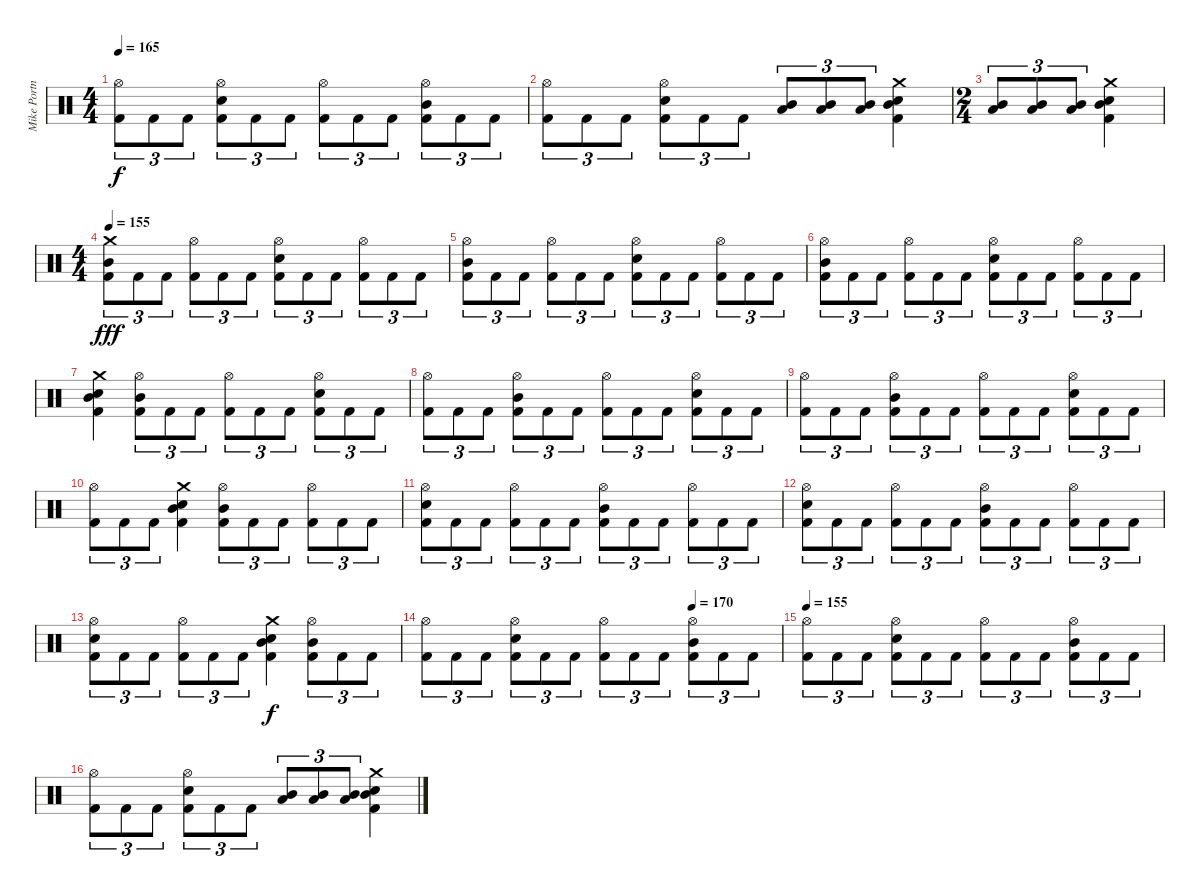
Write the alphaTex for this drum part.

\track ("Mike Portnoy" "Mike Portn") {instrument percussion}
\staff {score}
\articulation defaults
\ts (4 4)
\tempo 155
\tempo 165
\clef neutral
\ks c
("Hi-Hat (open)" "Kick (hit) 2").8{tu (3 2) dy f} "Kick (hit) 2".8{tu (3 2)} "Kick (hit) 2".8{tu (3 2)} ("Hi-Hat (open)" "Electric Snare (hit)" "Kick (hit) 2").8{tu (3 2)} "Kick (hit) 2".8{tu (3 2)} "Kick (hit) 2".8{tu (3 2)} ("Hi-Hat (open)" "Kick (hit) 2").8{tu (3 2)} "Kick (hit) 2".8{tu (3 2)} "Kick (hit) 2".8{tu (3 2)} ("Hi-Hat (open)" "Mid Tom (hit)" "Kick (hit) 2").8{tu (3 2)} "Kick (hit) 2".8{tu (3 2)} "Kick (hit) 2".8{tu (3 2)} |
("Hi-Hat (open)" "Kick (hit) 2").8{tu (3 2)} "Kick (hit) 2".8{tu (3 2)} "Kick (hit) 2".8{tu (3 2)} ("Hi-Hat (open)" "Electric Snare (hit)" "Kick (hit) 2").8{tu (3 2)} "Kick (hit) 2".8{tu (3 2)} "Kick (hit) 2".8{tu (3 2)} ("Mid Tom (hit)" "Low Tom (hit)").8{tu (3 2)} ("Mid Tom (hit)" "Low Tom (hit)").8{tu (3 2)} ("Mid Tom (hit)" "Low Tom (hit)").8{tu (3 2)} ("Crash medium (hit)" "Mid Tom (hit)" "Electric Snare (hit)" "Kick (hit) 2").4 |
\ts (2 4)
("Mid Tom (hit)" "Low Tom (hit)").8{tu (3 2)} ("Mid Tom (hit)" "Low Tom (hit)").8{tu (3 2)} ("Mid Tom (hit)" "Low Tom (hit)").8{tu (3 2)} ("Crash medium (hit)" "Mid Tom (hit)" "Electric Snare (hit)" "Kick (hit) 2").4 |
\ts (4 4)
\tempo 155
("Crash medium (hit)" "Mid Tom (hit)" "Kick (hit) 2").8{tu (3 2) dy fff} "Kick (hit) 2".8{tu (3 2)} "Kick (hit) 2".8{tu (3 2)} ("Hi-Hat (open)" "Kick (hit) 2").8{tu (3 2)} "Kick (hit) 2".8{tu (3 2)} "Kick (hit) 2".8{tu (3 2)} ("Hi-Hat (open)" "Electric Snare (hit)" "Kick (hit) 2").8{tu (3 2)} "Kick (hit) 2".8{tu (3 2)} "Kick (hit) 2".8{tu (3 2)} ("Hi-Hat (open)" "Kick (hit) 2").8{tu (3 2)} "Kick (hit) 2".8{tu (3 2)} "Kick (hit) 2".8{tu (3 2)} |
("Hi-Hat (open)" "Mid Tom (hit)" "Kick (hit) 2").8{tu (3 2)} "Kick (hit) 2".8{tu (3 2)} "Kick (hit) 2".8{tu (3 2)} ("Hi-Hat (open)" "Kick (hit) 2").8{tu (3 2)} "Kick (hit) 2".8{tu (3 2)} "Kick (hit) 2".8{tu (3 2)} ("Hi-Hat (open)" "Electric Snare (hit)" "Kick (hit) 2").8{tu (3 2)} "Kick (hit) 2".8{tu (3 2)} "Kick (hit) 2".8{tu (3 2)} ("Hi-Hat (open)" "Kick (hit) 2").8{tu (3 2)} "Kick (hit) 2".8{tu (3 2)} "Kick (hit) 2".8{tu (3 2)} |
("Hi-Hat (open)" "Mid Tom (hit)" "Kick (hit) 2").8{tu (3 2)} "Kick (hit) 2".8{tu (3 2)} "Kick (hit) 2".8{tu (3 2)} ("Hi-Hat (open)" "Kick (hit) 2").8{tu (3 2)} "Kick (hit) 2".8{tu (3 2)} "Kick (hit) 2".8{tu (3 2)} ("Hi-Hat (open)" "Electric Snare (hit)" "Kick (hit) 2").8{tu (3 2)} "Kick (hit) 2".8{tu (3 2)} "Kick (hit) 2".8{tu (3 2)} ("Hi-Hat (open)" "Kick (hit) 2").8{tu (3 2)} "Kick (hit) 2".8{tu (3 2)} "Kick (hit) 2".8{tu (3 2)} |
("Crash medium (hit)" "Mid Tom (hit)" "Electric Snare (hit)" "Kick (hit) 2").4 ("Hi-Hat (open)" "Mid Tom (hit)" "Kick (hit) 2").8{tu (3 2)} "Kick (hit) 2".8{tu (3 2)} "Kick (hit) 2".8{tu (3 2)} ("Hi-Hat (open)" "Kick (hit) 2").8{tu (3 2)} "Kick (hit) 2".8{tu (3 2)} "Kick (hit) 2".8{tu (3 2)} ("Hi-Hat (open)" "Electric Snare (hit)" "Kick (hit) 2").8{tu (3 2)} "Kick (hit) 2".8{tu (3 2)} "Kick (hit) 2".8{tu (3 2)} |
("Hi-Hat (open)" "Kick (hit) 2").8{tu (3 2)} "Kick (hit) 2".8{tu (3 2)} "Kick (hit) 2".8{tu (3 2)} ("Hi-Hat (open)" "Mid Tom (hit)" "Kick (hit) 2").8{tu (3 2)} "Kick (hit) 2".8{tu (3 2)} "Kick (hit) 2".8{tu (3 2)} ("Hi-Hat (open)" "Kick (hit) 2").8{tu (3 2)} "Kick (hit) 2".8{tu (3 2)} "Kick (hit) 2".8{tu (3 2)} ("Hi-Hat (open)" "Electric Snare (hit)" "Kick (hit) 2").8{tu (3 2)} "Kick (hit) 2".8{tu (3 2)} "Kick (hit) 2".8{tu (3 2)} |
("Hi-Hat (open)" "Kick (hit) 2").8{tu (3 2)} "Kick (hit) 2".8{tu (3 2)} "Kick (hit) 2".8{tu (3 2)} ("Hi-Hat (open)" "Mid Tom (hit)" "Kick (hit) 2").8{tu (3 2)} "Kick (hit) 2".8{tu (3 2)} "Kick (hit) 2".8{tu (3 2)} ("Hi-Hat (open)" "Kick (hit) 2").8{tu (3 2)} "Kick (hit) 2".8{tu (3 2)} "Kick (hit) 2".8{tu (3 2)} ("Hi-Hat (open)" "Electric Snare (hit)" "Kick (hit) 2").8{tu (3 2)} "Kick (hit) 2".8{tu (3 2)} "Kick (hit) 2".8{tu (3 2)} |
("Hi-Hat (open)" "Kick (hit) 2").8{tu (3 2)} "Kick (hit) 2".8{tu (3 2)} "Kick (hit) 2".8{tu (3 2)} ("Crash medium (hit)" "Mid Tom (hit)" "Electric Snare (hit)" "Kick (hit) 2").4 ("Hi-Hat (open)" "Mid Tom (hit)" "Kick (hit) 2").8{tu (3 2)} "Kick (hit) 2".8{tu (3 2)} "Kick (hit) 2".8{tu (3 2)} ("Hi-Hat (open)" "Kick (hit) 2").8{tu (3 2)} "Kick (hit) 2".8{tu (3 2)} "Kick (hit) 2".8{tu (3 2)} |
("Hi-Hat (open)" "Electric Snare (hit)" "Kick (hit) 2").8{tu (3 2)} "Kick (hit) 2".8{tu (3 2)} "Kick (hit) 2".8{tu (3 2)} ("Hi-Hat (open)" "Kick (hit) 2").8{tu (3 2)} "Kick (hit) 2".8{tu (3 2)} "Kick (hit) 2".8{tu (3 2)} ("Hi-Hat (open)" "Mid Tom (hit)" "Kick (hit) 2").8{tu (3 2)} "Kick (hit) 2".8{tu (3 2)} "Kick (hit) 2".8{tu (3 2)} ("Hi-Hat (open)" "Kick (hit) 2").8{tu (3 2)} "Kick (hit) 2".8{tu (3 2)} "Kick (hit) 2".8{tu (3 2)} |
("Hi-Hat (open)" "Electric Snare (hit)" "Kick (hit) 2").8{tu (3 2)} "Kick (hit) 2".8{tu (3 2)} "Kick (hit) 2".8{tu (3 2)} ("Hi-Hat (open)" "Kick (hit) 2").8{tu (3 2)} "Kick (hit) 2".8{tu (3 2)} "Kick (hit) 2".8{tu (3 2)} ("Hi-Hat (open)" "Mid Tom (hit)" "Kick (hit) 2").8{tu (3 2)} "Kick (hit) 2".8{tu (3 2)} "Kick (hit) 2".8{tu (3 2)} ("Hi-Hat (open)" "Kick (hit) 2").8{tu (3 2)} "Kick (hit) 2".8{tu (3 2)} "Kick (hit) 2".8{tu (3 2)} |
("Hi-Hat (open)" "Electric Snare (hit)" "Kick (hit) 2").8{tu (3 2)} "Kick (hit) 2".8{tu (3 2)} "Kick (hit) 2".8{tu (3 2)} ("Hi-Hat (open)" "Kick (hit) 2").8{tu (3 2)} "Kick (hit) 2".8{tu (3 2)} "Kick (hit) 2".8{tu (3 2)} ("Crash medium (hit)" "Mid Tom (hit)" "Electric Snare (hit)" "Kick (hit) 2").4{dy f} ("Hi-Hat (open)" "Mid Tom (hit)" "Kick (hit) 2").8{tu (3 2)} "Kick (hit) 2".8{tu (3 2)} "Kick (hit) 2".8{tu (3 2)} |
\tempo (170 0.75)
("Hi-Hat (open)" "Kick (hit) 2").8{tu (3 2)} "Kick (hit) 2".8{tu (3 2)} "Kick (hit) 2".8{tu (3 2)} ("Hi-Hat (open)" "Electric Snare (hit)" "Kick (hit) 2").8{tu (3 2)} "Kick (hit) 2".8{tu (3 2)} "Kick (hit) 2".8{tu (3 2)} ("Hi-Hat (open)" "Kick (hit) 2").8{tu (3 2)} "Kick (hit) 2".8{tu (3 2)} "Kick (hit) 2".8{tu (3 2)} ("Hi-Hat (open)" "Mid Tom (hit)" "Kick (hit) 2").8{tu (3 2)} "Kick (hit) 2".8{tu (3 2)} "Kick (hit) 2".8{tu (3 2)} |
\tempo 155
("Hi-Hat (open)" "Kick (hit) 2").8{tu (3 2)} "Kick (hit) 2".8{tu (3 2)} "Kick (hit) 2".8{tu (3 2)} ("Hi-Hat (open)" "Electric Snare (hit)" "Kick (hit) 2").8{tu (3 2)} "Kick (hit) 2".8{tu (3 2)} "Kick (hit) 2".8{tu (3 2)} ("Hi-Hat (open)" "Kick (hit) 2").8{tu (3 2)} "Kick (hit) 2".8{tu (3 2)} "Kick (hit) 2".8{tu (3 2)} ("Hi-Hat (open)" "Mid Tom (hit)" "Kick (hit) 2").8{tu (3 2)} "Kick (hit) 2".8{tu (3 2)} "Kick (hit) 2".8{tu (3 2)} |
("Hi-Hat (open)" "Kick (hit) 2").8{tu (3 2)} "Kick (hit) 2".8{tu (3 2)} "Kick (hit) 2".8{tu (3 2)} ("Hi-Hat (open)" "Electric Snare (hit)" "Kick (hit) 2").8{tu (3 2)} "Kick (hit) 2".8{tu (3 2)} "Kick (hit) 2".8{tu (3 2)} ("Mid Tom (hit)" "Low Tom (hit)").8{tu (3 2)} ("Mid Tom (hit)" "Low Tom (hit)").8{tu (3 2)} ("Mid Tom (hit)" "Low Tom (hit)").8{tu (3 2)} ("Crash medium (hit)" "Mid Tom (hit)" "Electric Snare (hit)" "Kick (hit) 2").4
